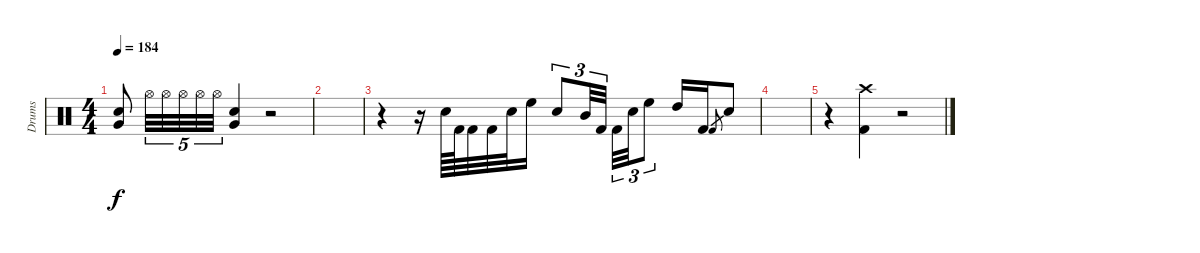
\track ("Drums" "Drums") {instrument percussion}
\staff {score}
\articulation defaults
\ts (4 4)
\tempo 184
\clef neutral
\ks c
("Very Low Tom (hit)" "Snare (hit) 2").8{dy f} "Hi-Hat (open)".32{tu (5 4)} "Hi-Hat (open)".32{tu (5 4)} "Hi-Hat (open)".32{tu (5 4)} "Hi-Hat (open)".32{tu (5 4)} "Hi-Hat (open)".32{tu (5 4)} ("Very Low Tom (hit)" "Snare (hit) 2").4 r.2 |
|
r.4 r.16 "Snare (hit) 2".64 "Kick (hit) 2".64 "Kick (hit) 2".32 "Kick (hit) 2".32 "Snare (hit) 2".32 "High Floor Tom (hit)".16 "Snare (hit) 2".8{tu (3 2)} "Mid Tom (hit)".32{tu (3 2)} "Kick (hit) 2".32{tu (3 2) beam splitsecondary} "Kick (hit) 2".32{tu (3 2)} "Snare (hit) 2".32{tu (3 2)} "High Floor Tom (hit)".8{tu (3 2)} "High Tom (hit)".16 "Kick (hit) 2".16 "Kick (hit) 2".8{gr} "Snare (hit) 2".8 |
|
r.4 ("Kick (hit) 2" "Crash high (hit)").4 r.2
